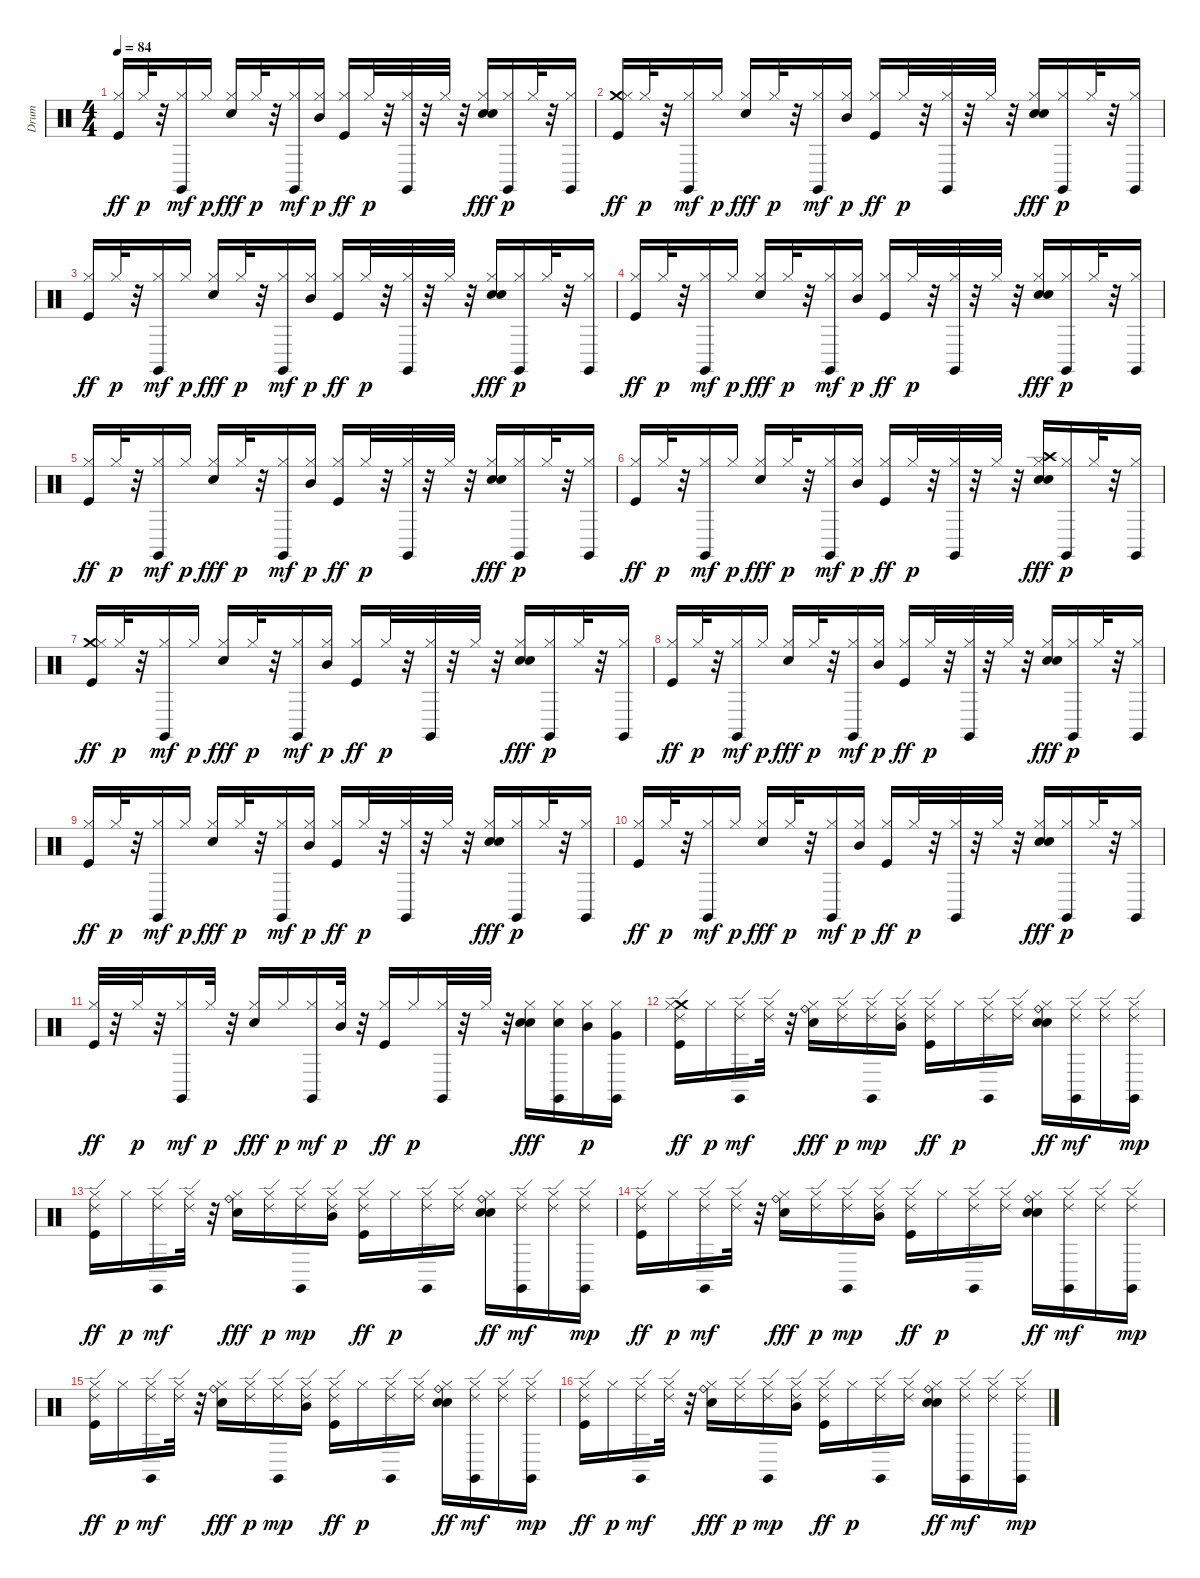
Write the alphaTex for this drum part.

\track ("Drum" "Drum") {instrument percussion}
\staff {score}
\articulation defaults
\ts (4 4)
\tempo 84
\clef neutral
\ks c
("Kick (hit)" "Hi-Hat (closed)").16{dy ff} "Hi-Hat (closed)".32{dy p} r.32 ("Hi-Hat (closed)" "Claves (hit)").16{dy mf} "Hi-Hat (closed)".16{dy p} ("Hi-Hat (closed)" "Snare (hit) 2").16{dy fff} "Hi-Hat (closed)".32{dy p} r.32 ("Hi-Hat (closed)" "Claves (hit)").16{dy mf} ("Hi-Hat (closed)" "Mid Tom (hit)").16{dy p} ("Kick (hit)" "Hi-Hat (closed)").16{dy ff} "Hi-Hat (closed)".32{dy p} r.32 ("Hi-Hat (closed)" "Claves (hit)").32 r.32 "Hi-Hat (closed)".32 r.32 ("Hi-Hat (closed)" "Snare (hit) 2" "Hand Clap (hit)").16{dy fff} ("Hi-Hat (closed)" "Claves (hit)").16{dy p} "Hi-Hat (closed)".32 r.32 ("Hi-Hat (closed)" "Claves (hit)").16 |
("Crash medium (hit)" "Kick (hit)" "Hi-Hat (closed)").16{dy ff} "Hi-Hat (closed)".32{dy p} r.32 ("Hi-Hat (closed)" "Claves (hit)").16{dy mf} "Hi-Hat (closed)".16{dy p} ("Hi-Hat (closed)" "Snare (hit) 2").16{dy fff} "Hi-Hat (closed)".32{dy p} r.32 ("Hi-Hat (closed)" "Claves (hit)").16{dy mf} ("Hi-Hat (closed)" "Mid Tom (hit)").16{dy p} ("Kick (hit)" "Hi-Hat (closed)").16{dy ff} "Hi-Hat (closed)".32{dy p} r.32 ("Hi-Hat (closed)" "Claves (hit)").32 r.32 "Hi-Hat (closed)".32 r.32 ("Hi-Hat (closed)" "Snare (hit) 2" "Hand Clap (hit)").16{dy fff} ("Hi-Hat (closed)" "Claves (hit)").16{dy p} "Hi-Hat (closed)".32 r.32 ("Hi-Hat (closed)" "Claves (hit)").16 |
("Kick (hit)" "Hi-Hat (closed)").16{dy ff} "Hi-Hat (closed)".32{dy p} r.32 ("Hi-Hat (closed)" "Claves (hit)").16{dy mf} "Hi-Hat (closed)".16{dy p} ("Hi-Hat (closed)" "Snare (hit) 2").16{dy fff} "Hi-Hat (closed)".32{dy p} r.32 ("Hi-Hat (closed)" "Claves (hit)").16{dy mf} ("Hi-Hat (closed)" "Mid Tom (hit)").16{dy p} ("Kick (hit)" "Hi-Hat (closed)").16{dy ff} "Hi-Hat (closed)".32{dy p} r.32 ("Hi-Hat (closed)" "Claves (hit)").32 r.32 "Hi-Hat (closed)".32 r.32 ("Hi-Hat (closed)" "Snare (hit) 2" "Hand Clap (hit)").16{dy fff} ("Hi-Hat (closed)" "Claves (hit)").16{dy p} "Hi-Hat (closed)".32 r.32 ("Hi-Hat (closed)" "Claves (hit)").16 |
("Kick (hit)" "Hi-Hat (closed)").16{dy ff} "Hi-Hat (closed)".32{dy p} r.32 ("Hi-Hat (closed)" "Claves (hit)").16{dy mf} "Hi-Hat (closed)".16{dy p} ("Hi-Hat (closed)" "Snare (hit) 2").16{dy fff} "Hi-Hat (closed)".32{dy p} r.32 ("Hi-Hat (closed)" "Claves (hit)").16{dy mf} ("Hi-Hat (closed)" "Mid Tom (hit)").16{dy p} ("Kick (hit)" "Hi-Hat (closed)").16{dy ff} "Hi-Hat (closed)".32{dy p} r.32 ("Hi-Hat (closed)" "Claves (hit)").32 r.32 "Hi-Hat (closed)".32 r.32 ("Hi-Hat (closed)" "Snare (hit) 2" "Hand Clap (hit)").16{dy fff} ("Hi-Hat (closed)" "Claves (hit)").16{dy p} "Hi-Hat (closed)".32 r.32 ("Hi-Hat (closed)" "Claves (hit)").16 |
("Kick (hit)" "Hi-Hat (closed)").16{dy ff} "Hi-Hat (closed)".32{dy p} r.32 ("Hi-Hat (closed)" "Claves (hit)").16{dy mf} "Hi-Hat (closed)".16{dy p} ("Hi-Hat (closed)" "Snare (hit) 2").16{dy fff} "Hi-Hat (closed)".32{dy p} r.32 ("Hi-Hat (closed)" "Claves (hit)").16{dy mf} ("Hi-Hat (closed)" "Mid Tom (hit)").16{dy p} ("Kick (hit)" "Hi-Hat (closed)").16{dy ff} "Hi-Hat (closed)".32{dy p} r.32 ("Hi-Hat (closed)" "Claves (hit)").32 r.32 "Hi-Hat (closed)".32 r.32 ("Hi-Hat (closed)" "Snare (hit) 2" "Hand Clap (hit)").16{dy fff} ("Hi-Hat (closed)" "Claves (hit)").16{dy p} "Hi-Hat (closed)".32 r.32 ("Hi-Hat (closed)" "Claves (hit)").16 |
("Kick (hit)" "Hi-Hat (closed)").16{dy ff} "Hi-Hat (closed)".32{dy p} r.32 ("Hi-Hat (closed)" "Claves (hit)").16{dy mf} "Hi-Hat (closed)".16{dy p} ("Hi-Hat (closed)" "Snare (hit) 2").16{dy fff} "Hi-Hat (closed)".32{dy p} r.32 ("Hi-Hat (closed)" "Claves (hit)").16{dy mf} ("Hi-Hat (closed)" "Mid Tom (hit)").16{dy p} ("Kick (hit)" "Hi-Hat (closed)").16{dy ff} "Hi-Hat (closed)".32{dy p} r.32 ("Hi-Hat (closed)" "Claves (hit)").32 r.32 "Hi-Hat (closed)".32 r.32 ("Crash high (hit)" "Hi-Hat (closed)" "Snare (hit) 2" "Hand Clap (hit)").16{dy fff} ("Hi-Hat (closed)" "Claves (hit)").16{dy p} "Hi-Hat (closed)".32 r.32 ("Hi-Hat (closed)" "Claves (hit)").16 |
("Crash medium (hit)" "Kick (hit)" "Hi-Hat (closed)").16{dy ff} "Hi-Hat (closed)".32{dy p} r.32 ("Hi-Hat (closed)" "Claves (hit)").16{dy mf} "Hi-Hat (closed)".16{dy p} ("Hi-Hat (closed)" "Snare (hit) 2").16{dy fff} "Hi-Hat (closed)".32{dy p} r.32 ("Hi-Hat (closed)" "Claves (hit)").16{dy mf} ("Hi-Hat (closed)" "Mid Tom (hit)").16{dy p} ("Kick (hit)" "Hi-Hat (closed)").16{dy ff} "Hi-Hat (closed)".32{dy p} r.32 ("Hi-Hat (closed)" "Claves (hit)").32 r.32 "Hi-Hat (closed)".32 r.32 ("Hi-Hat (closed)" "Snare (hit) 2" "Hand Clap (hit)").16{dy fff} ("Hi-Hat (closed)" "Claves (hit)").16{dy p} "Hi-Hat (closed)".32 r.32 ("Hi-Hat (closed)" "Claves (hit)").16 |
("Kick (hit)" "Hi-Hat (closed)").16{dy ff} "Hi-Hat (closed)".32{dy p} r.32 ("Hi-Hat (closed)" "Claves (hit)").16{dy mf} "Hi-Hat (closed)".16{dy p} ("Hi-Hat (closed)" "Snare (hit) 2").16{dy fff} "Hi-Hat (closed)".32{dy p} r.32 ("Hi-Hat (closed)" "Claves (hit)").16{dy mf} ("Hi-Hat (closed)" "Mid Tom (hit)").16{dy p} ("Kick (hit)" "Hi-Hat (closed)").16{dy ff} "Hi-Hat (closed)".32{dy p} r.32 ("Hi-Hat (closed)" "Claves (hit)").32 r.32 "Hi-Hat (closed)".32 r.32 ("Hi-Hat (closed)" "Snare (hit) 2" "Hand Clap (hit)").16{dy fff} ("Hi-Hat (closed)" "Claves (hit)").16{dy p} "Hi-Hat (closed)".32 r.32 ("Hi-Hat (closed)" "Claves (hit)").16 |
("Kick (hit)" "Hi-Hat (closed)").16{dy ff} "Hi-Hat (closed)".32{dy p} r.32 ("Hi-Hat (closed)" "Claves (hit)").16{dy mf} "Hi-Hat (closed)".16{dy p} ("Hi-Hat (closed)" "Snare (hit) 2").16{dy fff} "Hi-Hat (closed)".32{dy p} r.32 ("Hi-Hat (closed)" "Claves (hit)").16{dy mf} ("Hi-Hat (closed)" "Mid Tom (hit)").16{dy p} ("Kick (hit)" "Hi-Hat (closed)").16{dy ff} "Hi-Hat (closed)".32{dy p} r.32 ("Hi-Hat (closed)" "Claves (hit)").32 r.32 "Hi-Hat (closed)".32 r.32 ("Hi-Hat (closed)" "Snare (hit) 2" "Hand Clap (hit)").16{dy fff} ("Hi-Hat (closed)" "Claves (hit)").16{dy p} "Hi-Hat (closed)".32 r.32 ("Hi-Hat (closed)" "Claves (hit)").16 |
("Kick (hit)" "Hi-Hat (closed)").16{dy ff} "Hi-Hat (closed)".32{dy p} r.32 ("Hi-Hat (closed)" "Claves (hit)").16{dy mf} "Hi-Hat (closed)".16{dy p} ("Hi-Hat (closed)" "Snare (hit) 2").16{dy fff} "Hi-Hat (closed)".32{dy p} r.32 ("Hi-Hat (closed)" "Claves (hit)").16{dy mf} ("Hi-Hat (closed)" "Mid Tom (hit)").16{dy p} ("Kick (hit)" "Hi-Hat (closed)").16{dy ff} "Hi-Hat (closed)".32{dy p} r.32 ("Hi-Hat (closed)" "Claves (hit)").32 r.32 "Hi-Hat (closed)".32 r.32 ("Hi-Hat (closed)" "Snare (hit) 2" "Hand Clap (hit)").16{dy fff} ("Hi-Hat (closed)" "Claves (hit)").16{dy p} "Hi-Hat (closed)".32 r.32 ("Hi-Hat (closed)" "Claves (hit)").16 |
("Kick (hit)" "Hi-Hat (closed)").32{dy ff} r.32 "Hi-Hat (closed)".32{dy p} r.32 ("Hi-Hat (closed)" "Claves (hit)").16{dy mf} "Hi-Hat (closed)".32{dy p} r.32 ("Hi-Hat (closed)" "Snare (hit) 2").16{dy fff} "Hi-Hat (closed)".16{dy p} ("Hi-Hat (closed)" "Claves (hit)").16{dy mf} ("Hi-Hat (closed)" "Mid Tom (hit)").32{dy p} r.32 ("Kick (hit)" "Hi-Hat (closed)").16{dy ff} "Hi-Hat (closed)".16{dy p} ("Hi-Hat (closed)" "Claves (hit)").32 r.32 "Hi-Hat (closed)".32 r.32 ("Hi-Hat (closed)" "Snare (hit) 2" "Hand Clap (hit)").16{dy fff} ("Hi-Hat (closed)" "Claves (hit)" "Snare (hit) 2").16 ("Mid Tom (hit)" "Hi-Hat (closed)").16{dy p} ("Hi-Hat (closed)" "Claves (hit)" "Very Low Tom (hit)").16 |
("Crash medium (hit)" "Kick (hit)" "Hi-Hat (closed)" "Ride (edge) 2").16{dy ff} "Hi-Hat (closed)".16{dy p} ("Hi-Hat (closed)" "Claves (hit)" "Ride (edge) 2").16{dy mf} ("Hi-Hat (closed)" "Ride (edge) 2").32 r.32 ("Hi-Hat (closed)" "Snare (hit) 2" "Ride (bell)").16{dy fff} ("Hi-Hat (closed)" "Ride (edge) 2").16{dy p} ("Hi-Hat (closed)" "Claves (hit)" "Ride (edge) 2").16{dy mp} ("Hi-Hat (closed)" "Mid Tom (hit)" "Ride (edge) 2").16 ("Kick (hit)" "Hi-Hat (closed)" "Ride (edge) 2").16{dy ff} "Hi-Hat (closed)".16{dy p} ("Hi-Hat (closed)" "Claves (hit)" "Ride (edge) 2").16 ("Hi-Hat (closed)" "Ride (edge) 2").16 ("Hi-Hat (closed)" "Snare (hit) 2" "Hand Clap (hit)" "Ride (bell)").16{dy ff} ("Hi-Hat (closed)" "Claves (hit)" "Ride (edge) 2").16{dy mf} ("Hi-Hat (closed)" "Ride (edge) 2").16 ("Hi-Hat (closed)" "Claves (hit)" "Ride (edge) 2").16{dy mp} |
("Kick (hit)" "Hi-Hat (closed)" "Ride (edge) 2").16{dy ff} "Hi-Hat (closed)".16{dy p} ("Hi-Hat (closed)" "Claves (hit)" "Ride (edge) 2").16{dy mf} ("Hi-Hat (closed)" "Ride (edge) 2").32 r.32 ("Hi-Hat (closed)" "Snare (hit) 2" "Ride (bell)").16{dy fff} ("Hi-Hat (closed)" "Ride (edge) 2").16{dy p} ("Hi-Hat (closed)" "Claves (hit)" "Ride (edge) 2").16{dy mp} ("Hi-Hat (closed)" "Mid Tom (hit)" "Ride (edge) 2").16 ("Kick (hit)" "Hi-Hat (closed)" "Ride (edge) 2").16{dy ff} "Hi-Hat (closed)".16{dy p} ("Hi-Hat (closed)" "Claves (hit)" "Ride (edge) 2").16 ("Hi-Hat (closed)" "Ride (edge) 2").16 ("Hi-Hat (closed)" "Snare (hit) 2" "Hand Clap (hit)" "Ride (bell)").16{dy ff} ("Hi-Hat (closed)" "Claves (hit)" "Ride (edge) 2").16{dy mf} ("Hi-Hat (closed)" "Ride (edge) 2").16 ("Hi-Hat (closed)" "Claves (hit)" "Ride (edge) 2").16{dy mp} |
("Kick (hit)" "Hi-Hat (closed)" "Ride (edge) 2").16{dy ff} "Hi-Hat (closed)".16{dy p} ("Hi-Hat (closed)" "Claves (hit)" "Ride (edge) 2").16{dy mf} ("Hi-Hat (closed)" "Ride (edge) 2").32 r.32 ("Hi-Hat (closed)" "Snare (hit) 2" "Ride (bell)").16{dy fff} ("Hi-Hat (closed)" "Ride (edge) 2").16{dy p} ("Hi-Hat (closed)" "Claves (hit)" "Ride (edge) 2").16{dy mp} ("Hi-Hat (closed)" "Mid Tom (hit)" "Ride (edge) 2").16 ("Kick (hit)" "Hi-Hat (closed)" "Ride (edge) 2").16{dy ff} "Hi-Hat (closed)".16{dy p} ("Hi-Hat (closed)" "Claves (hit)" "Ride (edge) 2").16 ("Hi-Hat (closed)" "Ride (edge) 2").16 ("Hi-Hat (closed)" "Snare (hit) 2" "Hand Clap (hit)" "Ride (bell)").16{dy ff} ("Hi-Hat (closed)" "Claves (hit)" "Ride (edge) 2").16{dy mf} ("Hi-Hat (closed)" "Ride (edge) 2").16 ("Hi-Hat (closed)" "Claves (hit)" "Ride (edge) 2").16{dy mp} |
("Kick (hit)" "Hi-Hat (closed)" "Ride (edge) 2").16{dy ff} "Hi-Hat (closed)".16{dy p} ("Hi-Hat (closed)" "Claves (hit)" "Ride (edge) 2").16{dy mf} ("Hi-Hat (closed)" "Ride (edge) 2").32 r.32 ("Hi-Hat (closed)" "Snare (hit) 2" "Ride (bell)").16{dy fff} ("Hi-Hat (closed)" "Ride (edge) 2").16{dy p} ("Hi-Hat (closed)" "Claves (hit)" "Ride (edge) 2").16{dy mp} ("Hi-Hat (closed)" "Mid Tom (hit)" "Ride (edge) 2").16 ("Kick (hit)" "Hi-Hat (closed)" "Ride (edge) 2").16{dy ff} "Hi-Hat (closed)".16{dy p} ("Hi-Hat (closed)" "Claves (hit)" "Ride (edge) 2").16 ("Hi-Hat (closed)" "Ride (edge) 2").16 ("Hi-Hat (closed)" "Snare (hit) 2" "Hand Clap (hit)" "Ride (bell)").16{dy ff} ("Hi-Hat (closed)" "Claves (hit)" "Ride (edge) 2").16{dy mf} ("Hi-Hat (closed)" "Ride (edge) 2").16 ("Hi-Hat (closed)" "Claves (hit)" "Ride (edge) 2").16{dy mp} |
("Kick (hit)" "Hi-Hat (closed)" "Ride (edge) 2").16{dy ff} "Hi-Hat (closed)".16{dy p} ("Hi-Hat (closed)" "Claves (hit)" "Ride (edge) 2").16{dy mf} ("Hi-Hat (closed)" "Ride (edge) 2").32 r.32 ("Hi-Hat (closed)" "Snare (hit) 2" "Ride (bell)").16{dy fff} ("Hi-Hat (closed)" "Ride (edge) 2").16{dy p} ("Hi-Hat (closed)" "Claves (hit)" "Ride (edge) 2").16{dy mp} ("Hi-Hat (closed)" "Mid Tom (hit)" "Ride (edge) 2").16 ("Kick (hit)" "Hi-Hat (closed)" "Ride (edge) 2").16{dy ff} "Hi-Hat (closed)".16{dy p} ("Hi-Hat (closed)" "Claves (hit)" "Ride (edge) 2").16 ("Hi-Hat (closed)" "Ride (edge) 2").16 ("Hi-Hat (closed)" "Snare (hit) 2" "Hand Clap (hit)" "Ride (bell)").16{dy ff} ("Hi-Hat (closed)" "Claves (hit)" "Ride (edge) 2").16{dy mf} ("Hi-Hat (closed)" "Ride (edge) 2").16 ("Hi-Hat (closed)" "Claves (hit)" "Ride (edge) 2").16{dy mp}
